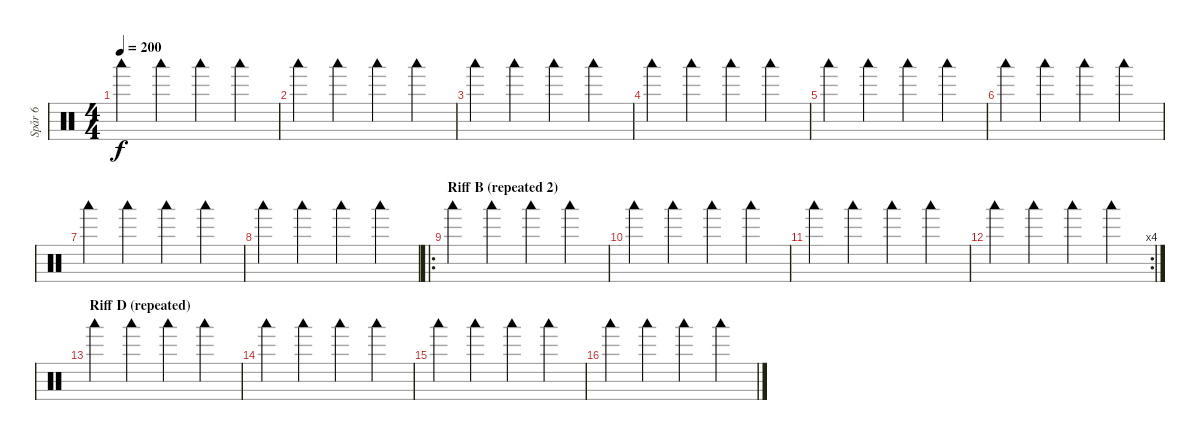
\track ("Spår 6" "Spår 6") {instrument percussion}
\staff {score}
\articulation defaults
\ts (4 4)
\tempo 200
\clef neutral
\ks c "Woodblock low (hit)".4{dy f} "Woodblock low (hit)".4 "Woodblock low (hit)".4 "Woodblock low (hit)".4
|
"Woodblock low (hit)".4 "Woodblock low (hit)".4 "Woodblock low (hit)".4 "Woodblock low (hit)".4 |
"Woodblock low (hit)".4 "Woodblock low (hit)".4 "Woodblock low (hit)".4 "Woodblock low (hit)".4 |
"Woodblock low (hit)".4 "Woodblock low (hit)".4 "Woodblock low (hit)".4 "Woodblock low (hit)".4 |
"Woodblock low (hit)".4 "Woodblock low (hit)".4 "Woodblock low (hit)".4 "Woodblock low (hit)".4 |
"Woodblock low (hit)".4 "Woodblock low (hit)".4 "Woodblock low (hit)".4 "Woodblock low (hit)".4 |
"Woodblock low (hit)".4 "Woodblock low (hit)".4 "Woodblock low (hit)".4 "Woodblock low (hit)".4 |
"Woodblock low (hit)".4 "Woodblock low (hit)".4 "Woodblock low (hit)".4 "Woodblock low (hit)".4 |
\ro
\section ("" "Riff B (repeated 2)")
"Woodblock low (hit)".4 "Woodblock low (hit)".4 "Woodblock low (hit)".4 "Woodblock low (hit)".4 |
"Woodblock low (hit)".4 "Woodblock low (hit)".4 "Woodblock low (hit)".4 "Woodblock low (hit)".4 |
"Woodblock low (hit)".4 "Woodblock low (hit)".4 "Woodblock low (hit)".4 "Woodblock low (hit)".4 |
\rc 4 "Woodblock low (hit)".4 "Woodblock low (hit)".4 "Woodblock low (hit)".4 "Woodblock low (hit)".4
|
\section ("" "Riff D (repeated)")
"Woodblock low (hit)".4 "Woodblock low (hit)".4 "Woodblock low (hit)".4 "Woodblock low (hit)".4 |
"Woodblock low (hit)".4 "Woodblock low (hit)".4 "Woodblock low (hit)".4 "Woodblock low (hit)".4 |
"Woodblock low (hit)".4 "Woodblock low (hit)".4 "Woodblock low (hit)".4 "Woodblock low (hit)".4 |
"Woodblock low (hit)".4 "Woodblock low (hit)".4 "Woodblock low (hit)".4 "Woodblock low (hit)".4
